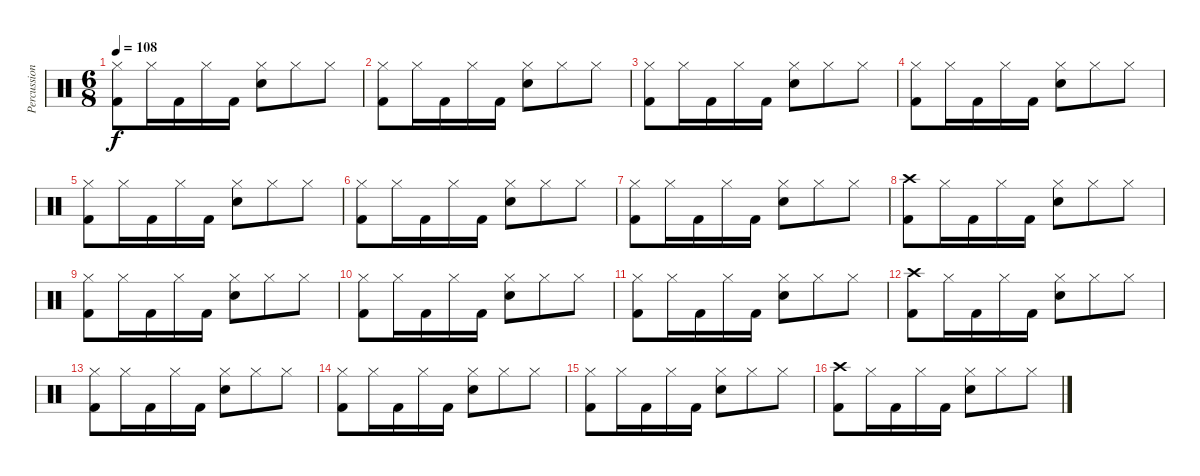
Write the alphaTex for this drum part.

\track ("Percussions" "Percussion") {instrument percussion}
\staff {score}
\articulation defaults
\ts (6 8)
\tempo 108
\clef neutral
\ks c
("Hi-Hat (closed)" "Kick (hit) 2").8{dy f} "Hi-Hat (closed)".16 "Kick (hit) 2".16 "Hi-Hat (closed)".16 "Kick (hit) 2".16 ("Hi-Hat (closed)" "Electric Snare (hit)").8 "Hi-Hat (closed)".8 "Hi-Hat (closed)".8 |
("Hi-Hat (closed)" "Kick (hit) 2").8 "Hi-Hat (closed)".16 "Kick (hit) 2".16 "Hi-Hat (closed)".16 "Kick (hit) 2".16 ("Hi-Hat (closed)" "Electric Snare (hit)").8 "Hi-Hat (closed)".8 "Hi-Hat (closed)".8 |
("Hi-Hat (closed)" "Kick (hit) 2").8 "Hi-Hat (closed)".16 "Kick (hit) 2".16 "Hi-Hat (closed)".16 "Kick (hit) 2".16 ("Hi-Hat (closed)" "Electric Snare (hit)").8 "Hi-Hat (closed)".8 "Hi-Hat (closed)".8 |
("Hi-Hat (closed)" "Kick (hit) 2").8 "Hi-Hat (closed)".16 "Kick (hit) 2".16 "Hi-Hat (closed)".16 "Kick (hit) 2".16 ("Hi-Hat (closed)" "Electric Snare (hit)").8 "Hi-Hat (closed)".8 "Hi-Hat (closed)".8 |
("Hi-Hat (closed)" "Kick (hit) 2").8 "Hi-Hat (closed)".16 "Kick (hit) 2".16 "Hi-Hat (closed)".16 "Kick (hit) 2".16 ("Hi-Hat (closed)" "Electric Snare (hit)").8 "Hi-Hat (closed)".8 "Hi-Hat (closed)".8 |
("Hi-Hat (closed)" "Kick (hit) 2").8 "Hi-Hat (closed)".16 "Kick (hit) 2".16 "Hi-Hat (closed)".16 "Kick (hit) 2".16 ("Hi-Hat (closed)" "Electric Snare (hit)").8 "Hi-Hat (closed)".8 "Hi-Hat (closed)".8 |
("Hi-Hat (closed)" "Kick (hit) 2").8 "Hi-Hat (closed)".16 "Kick (hit) 2".16 "Hi-Hat (closed)".16 "Kick (hit) 2".16 ("Hi-Hat (closed)" "Electric Snare (hit)").8 "Hi-Hat (closed)".8 "Hi-Hat (closed)".8 |
("Crash high (hit)" "Kick (hit) 2").8 "Hi-Hat (closed)".16 "Kick (hit) 2".16 "Hi-Hat (closed)".16 "Kick (hit) 2".16 ("Hi-Hat (closed)" "Electric Snare (hit)").8 "Hi-Hat (closed)".8 "Hi-Hat (closed)".8 |
("Hi-Hat (closed)" "Kick (hit) 2").8 "Hi-Hat (closed)".16 "Kick (hit) 2".16 "Hi-Hat (closed)".16 "Kick (hit) 2".16 ("Hi-Hat (closed)" "Electric Snare (hit)").8 "Hi-Hat (closed)".8 "Hi-Hat (closed)".8 |
("Hi-Hat (closed)" "Kick (hit) 2").8 "Hi-Hat (closed)".16 "Kick (hit) 2".16 "Hi-Hat (closed)".16 "Kick (hit) 2".16 ("Hi-Hat (closed)" "Electric Snare (hit)").8 "Hi-Hat (closed)".8 "Hi-Hat (closed)".8 |
("Hi-Hat (closed)" "Kick (hit) 2").8 "Hi-Hat (closed)".16 "Kick (hit) 2".16 "Hi-Hat (closed)".16 "Kick (hit) 2".16 ("Hi-Hat (closed)" "Electric Snare (hit)").8 "Hi-Hat (closed)".8 "Hi-Hat (closed)".8 |
("Crash high (hit)" "Kick (hit) 2").8 "Hi-Hat (closed)".16 "Kick (hit) 2".16 "Hi-Hat (closed)".16 "Kick (hit) 2".16 ("Hi-Hat (closed)" "Electric Snare (hit)").8 "Hi-Hat (closed)".8 "Hi-Hat (closed)".8 |
("Hi-Hat (closed)" "Kick (hit) 2").8 "Hi-Hat (closed)".16 "Kick (hit) 2".16 "Hi-Hat (closed)".16 "Kick (hit) 2".16 ("Hi-Hat (closed)" "Electric Snare (hit)").8 "Hi-Hat (closed)".8 "Hi-Hat (closed)".8 |
("Hi-Hat (closed)" "Kick (hit) 2").8 "Hi-Hat (closed)".16 "Kick (hit) 2".16 "Hi-Hat (closed)".16 "Kick (hit) 2".16 ("Hi-Hat (closed)" "Electric Snare (hit)").8 "Hi-Hat (closed)".8 "Hi-Hat (closed)".8 |
("Hi-Hat (closed)" "Kick (hit) 2").8 "Hi-Hat (closed)".16 "Kick (hit) 2".16 "Hi-Hat (closed)".16 "Kick (hit) 2".16 ("Hi-Hat (closed)" "Electric Snare (hit)").8 "Hi-Hat (closed)".8 "Hi-Hat (closed)".8 |
("Crash high (hit)" "Kick (hit) 2").8 "Hi-Hat (closed)".16 "Kick (hit) 2".16 "Hi-Hat (closed)".16 "Kick (hit) 2".16 ("Hi-Hat (closed)" "Electric Snare (hit)").8 "Hi-Hat (closed)".8 "Hi-Hat (closed)".8
